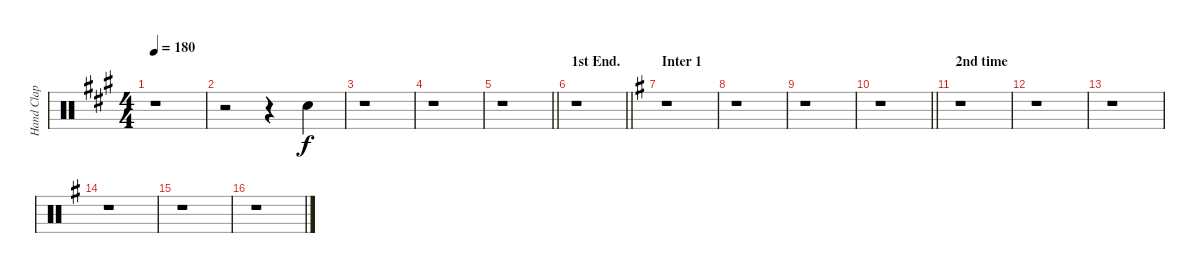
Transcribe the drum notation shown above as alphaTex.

\track ("Hand Clap" "Hand Clap") {instrument percussion}
\staff {score}
\articulation defaults
\ts (4 4)
\tempo 180
\clef neutral
\ks a
r.1{dy f} |
r.2 r.4 "Hand Clap (hit)".4 |
r.1 |
r.1 |
\barLineRight lightlight
r.1 |
\section ("" "1st End.")
\barLineRight lightlight
r.1 |
\section ("" "Inter 1")
\ks g
r.1 |
r.1 |
r.1 |
\barLineRight lightlight
r.1 |
\section ("" "2nd time")
r.1 |
r.1 |
r.1 |
r.1 |
r.1 |
r.1
